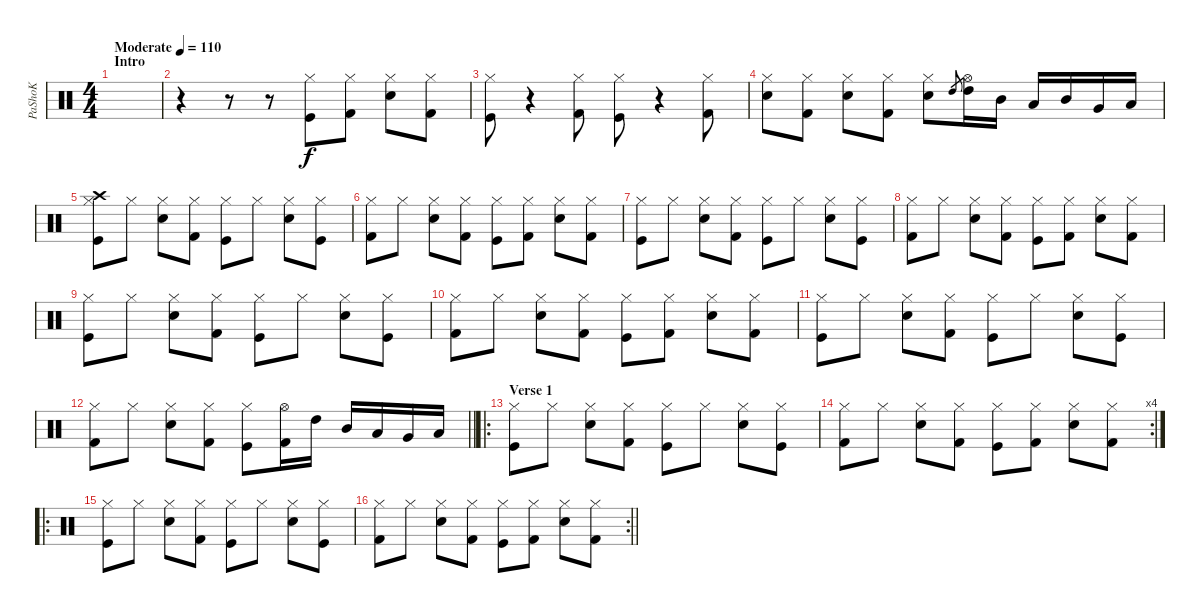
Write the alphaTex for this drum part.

\track ("PaShoK " "PaShoK ") {instrument percussion}
\staff {score}
\articulation defaults
\ts (4 4)
\section ("" "Intro ")
\tempo (110 "Moderate")
\clef neutral
\ks c
|
r.4 r.8 r.8 ("Hi-Hat (closed)" "Kick (hit)").8 ("Hi-Hat (closed)" "Kick (hit) 2").8 ("Hi-Hat (closed)" "Electric Snare (hit)").8 ("Hi-Hat (closed)" "Kick (hit) 2").8 |
("Hi-Hat (closed)" "Kick (hit)").8 r.4 ("Hi-Hat (closed)" "Kick (hit) 2").8 ("Hi-Hat (closed)" "Kick (hit)").8 r.4 ("Hi-Hat (closed)" "Kick (hit) 2").8 |
("Hi-Hat (closed)" "Electric Snare (hit)").8 ("Hi-Hat (closed)" "Kick (hit) 2").8 ("Hi-Hat (closed)" "Electric Snare (hit)").8 ("Hi-Hat (closed)" "Kick (hit) 2").8 ("Hi-Hat (closed)" "Electric Snare (hit)").8 "High Tom (hit)".8{gr} ("Hi-Hat (open)" "High Tom (hit)").16 "Mid Tom (hit)".16 "Low Tom (hit)".16 "Mid Tom (hit)".16 "Very Low Tom (hit)".16 "Low Floor Tom (hit)".16 |
("Hi-Hat (closed)" "Crash high (hit)" "Kick (hit)").8 "Hi-Hat (closed)".8 ("Hi-Hat (closed)" "Electric Snare (hit)").8 ("Hi-Hat (closed)" "Kick (hit) 2").8 ("Hi-Hat (closed)" "Kick (hit)").8 "Hi-Hat (closed)".8 ("Hi-Hat (closed)" "Electric Snare (hit)").8 ("Hi-Hat (closed)" "Kick (hit)").8 |
("Hi-Hat (closed)" "Kick (hit) 2").8 "Hi-Hat (closed)".8 ("Hi-Hat (closed)" "Electric Snare (hit)").8 ("Hi-Hat (closed)" "Kick (hit) 2").8 ("Hi-Hat (closed)" "Kick (hit)").8 ("Hi-Hat (closed)" "Kick (hit) 2").8 ("Hi-Hat (closed)" "Electric Snare (hit)").8 ("Hi-Hat (closed)" "Kick (hit) 2").8 |
("Hi-Hat (closed)" "Kick (hit)").8 "Hi-Hat (closed)".8 ("Hi-Hat (closed)" "Electric Snare (hit)").8 ("Hi-Hat (closed)" "Kick (hit) 2").8 ("Hi-Hat (closed)" "Kick (hit)").8 "Hi-Hat (closed)".8 ("Hi-Hat (closed)" "Electric Snare (hit)").8 ("Hi-Hat (closed)" "Kick (hit)").8 |
("Hi-Hat (closed)" "Kick (hit) 2").8 "Hi-Hat (closed)".8 ("Hi-Hat (closed)" "Electric Snare (hit)").8 ("Hi-Hat (closed)" "Kick (hit) 2").8 ("Hi-Hat (closed)" "Kick (hit)").8 ("Hi-Hat (closed)" "Kick (hit) 2").8 ("Hi-Hat (closed)" "Electric Snare (hit)").8 ("Hi-Hat (closed)" "Kick (hit) 2").8 |
("Hi-Hat (closed)" "Kick (hit)").8 "Hi-Hat (closed)".8 ("Hi-Hat (closed)" "Electric Snare (hit)").8 ("Hi-Hat (closed)" "Kick (hit) 2").8 ("Hi-Hat (closed)" "Kick (hit)").8 "Hi-Hat (closed)".8 ("Hi-Hat (closed)" "Electric Snare (hit)").8 ("Hi-Hat (closed)" "Kick (hit)").8 |
("Hi-Hat (closed)" "Kick (hit) 2").8 "Hi-Hat (closed)".8 ("Hi-Hat (closed)" "Electric Snare (hit)").8 ("Hi-Hat (closed)" "Kick (hit) 2").8 ("Hi-Hat (closed)" "Kick (hit)").8 ("Hi-Hat (closed)" "Kick (hit) 2").8 ("Hi-Hat (closed)" "Electric Snare (hit)").8 ("Hi-Hat (closed)" "Kick (hit) 2").8 |
("Hi-Hat (closed)" "Kick (hit)").8 "Hi-Hat (closed)".8 ("Hi-Hat (closed)" "Electric Snare (hit)").8 ("Hi-Hat (closed)" "Kick (hit) 2").8 ("Hi-Hat (closed)" "Kick (hit)").8 "Hi-Hat (closed)".8 ("Hi-Hat (closed)" "Electric Snare (hit)").8 ("Hi-Hat (closed)" "Kick (hit)").8 |
\barLineRight lightlight
("Hi-Hat (closed)" "Kick (hit) 2").8 "Hi-Hat (closed)".8 ("Hi-Hat (closed)" "Electric Snare (hit)").8 ("Hi-Hat (closed)" "Kick (hit) 2").8 ("Hi-Hat (closed)" "Kick (hit)").8 ("Hi-Hat (open)" "Kick (hit) 2").16 "High Tom (hit)".16 "Mid Tom (hit)".16 "Low Tom (hit)".16 "Very Low Tom (hit)".16 "Low Floor Tom (hit)".16 |
\ro
\section ("" "Verse 1 ")
("Hi-Hat (closed)" "Kick (hit)").8 "Hi-Hat (closed)".8 ("Hi-Hat (closed)" "Electric Snare (hit)").8 ("Hi-Hat (closed)" "Kick (hit) 2").8 ("Hi-Hat (closed)" "Kick (hit)").8 "Hi-Hat (closed)".8 ("Hi-Hat (closed)" "Electric Snare (hit)").8 ("Hi-Hat (closed)" "Kick (hit)").8 |
\rc 4
("Hi-Hat (closed)" "Kick (hit) 2").8 "Hi-Hat (closed)".8 ("Hi-Hat (closed)" "Electric Snare (hit)").8 ("Hi-Hat (closed)" "Kick (hit) 2").8 ("Hi-Hat (closed)" "Kick (hit)").8 ("Hi-Hat (closed)" "Kick (hit) 2").8 ("Hi-Hat (closed)" "Electric Snare (hit)").8 ("Hi-Hat (closed)" "Kick (hit) 2").8 |
\ro
("Hi-Hat (closed)" "Kick (hit)").8 "Hi-Hat (closed)".8 ("Hi-Hat (closed)" "Electric Snare (hit)").8 ("Hi-Hat (closed)" "Kick (hit) 2").8 ("Hi-Hat (closed)" "Kick (hit)").8 "Hi-Hat (closed)".8 ("Hi-Hat (closed)" "Electric Snare (hit)").8 ("Hi-Hat (closed)" "Kick (hit)").8 |
\rc 2
\barLineRight lightlight
("Hi-Hat (closed)" "Kick (hit) 2").8 "Hi-Hat (closed)".8 ("Hi-Hat (closed)" "Electric Snare (hit)").8 ("Hi-Hat (closed)" "Kick (hit) 2").8 ("Hi-Hat (closed)" "Kick (hit)").8 ("Hi-Hat (closed)" "Kick (hit) 2").8 ("Hi-Hat (closed)" "Electric Snare (hit)").8 ("Hi-Hat (closed)" "Kick (hit) 2").8
